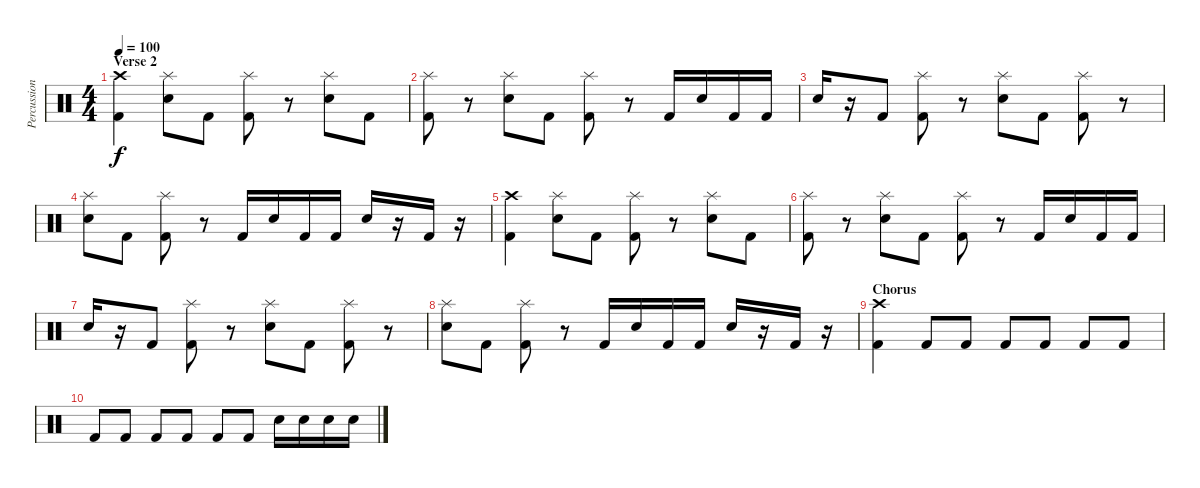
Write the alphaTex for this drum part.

\track ("Percussions" "Percussion") {instrument percussion}
\staff {score}
\articulation defaults
\ts (4 4)
\section ("" "Verse 2")
\tempo 100
\clef neutral
\ks c
("Crash high (hit)" "Kick (hit) 2").4{dy f} ("Splash (hit)" "Electric Snare (hit)").8 "Kick (hit) 2".8 ("Splash (hit)" "Kick (hit) 2").8 r.8 ("Splash (hit)" "Electric Snare (hit)").8 "Kick (hit) 2".8 |
("Splash (hit)" "Kick (hit) 2").8 r.8 ("Splash (hit)" "Electric Snare (hit)").8 "Kick (hit) 2".8 ("Splash (hit)" "Kick (hit) 2").8 r.8 "Kick (hit) 2".16 "Electric Snare (hit)".16 "Kick (hit) 2".16 "Kick (hit) 2".16 |
"Electric Snare (hit)".16 r.16 "Kick (hit) 2".8 ("Splash (hit)" "Kick (hit) 2").8 r.8 ("Splash (hit)" "Electric Snare (hit)").8 "Kick (hit) 2".8 ("Splash (hit)" "Kick (hit) 2").8 r.8 |
("Splash (hit)" "Electric Snare (hit)").8 "Kick (hit) 2".8 ("Splash (hit)" "Kick (hit) 2").8 r.8 "Kick (hit) 2".16 "Electric Snare (hit)".16 "Kick (hit) 2".16 "Kick (hit) 2".16 "Electric Snare (hit)".16 r.16 "Kick (hit) 2".16 r.16 |
("Crash high (hit)" "Kick (hit) 2").4 ("Splash (hit)" "Electric Snare (hit)").8 "Kick (hit) 2".8 ("Splash (hit)" "Kick (hit) 2").8 r.8 ("Splash (hit)" "Electric Snare (hit)").8 "Kick (hit) 2".8 |
("Splash (hit)" "Kick (hit) 2").8 r.8 ("Splash (hit)" "Electric Snare (hit)").8 "Kick (hit) 2".8 ("Splash (hit)" "Kick (hit) 2").8 r.8 "Kick (hit) 2".16 "Electric Snare (hit)".16 "Kick (hit) 2".16 "Kick (hit) 2".16 |
"Electric Snare (hit)".16 r.16 "Kick (hit) 2".8 ("Splash (hit)" "Kick (hit) 2").8 r.8 ("Splash (hit)" "Electric Snare (hit)").8 "Kick (hit) 2".8 ("Splash (hit)" "Kick (hit) 2").8 r.8 |
("Splash (hit)" "Electric Snare (hit)").8 "Kick (hit) 2".8 ("Splash (hit)" "Kick (hit) 2").8 r.8 "Kick (hit) 2".16 "Electric Snare (hit)".16 "Kick (hit) 2".16 "Kick (hit) 2".16 "Electric Snare (hit)".16 r.16 "Kick (hit) 2".16 r.16 |
\section ("" "Chorus")
("Crash high (hit)" "Kick (hit) 2").4 "Kick (hit) 2".8 "Kick (hit) 2".8 "Kick (hit) 2".8 "Kick (hit) 2".8 "Kick (hit) 2".8 "Kick (hit) 2".8 |
"Kick (hit) 2".8 "Kick (hit) 2".8 "Kick (hit) 2".8 "Kick (hit) 2".8 "Kick (hit) 2".8 "Kick (hit) 2".8 "Electric Snare (hit)".16 "Electric Snare (hit)".16 "Electric Snare (hit)".16 "Electric Snare (hit)".16
